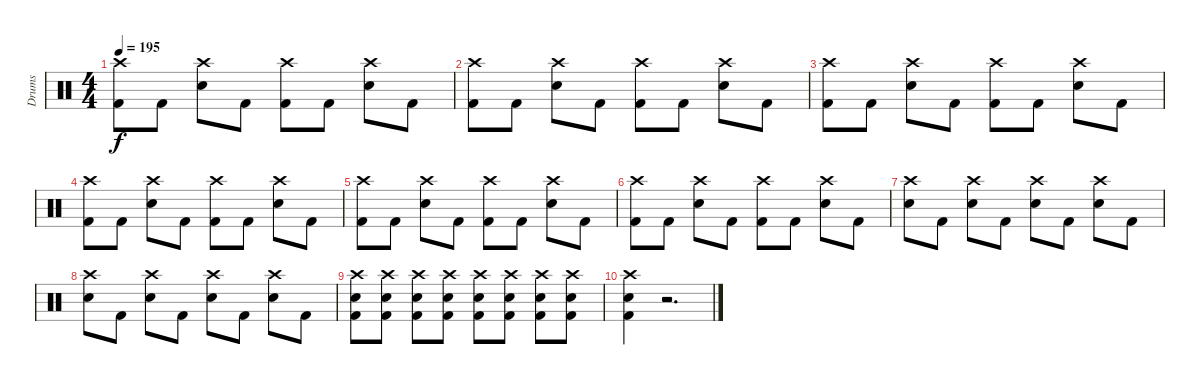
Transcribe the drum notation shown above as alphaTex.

\track ("Drums" "Drums") {instrument percussion}
\staff {score}
\articulation defaults
\ts (4 4)
\tempo 195
\clef neutral
\ks c
("Crash high (hit)" "Kick (hit) 2").8{dy f} "Kick (hit) 2".8 ("Crash high (hit)" "Electric Snare (hit)").8 "Kick (hit) 2".8 ("Crash high (hit)" "Kick (hit) 2").8 "Kick (hit) 2".8 ("Crash high (hit)" "Electric Snare (hit)").8 "Kick (hit) 2".8 |
("Crash high (hit)" "Kick (hit) 2").8 "Kick (hit) 2".8 ("Crash high (hit)" "Electric Snare (hit)").8 "Kick (hit) 2".8 ("Crash high (hit)" "Kick (hit) 2").8 "Kick (hit) 2".8 ("Crash high (hit)" "Electric Snare (hit)").8 "Kick (hit) 2".8 |
("Crash high (hit)" "Kick (hit) 2").8 "Kick (hit) 2".8 ("Crash high (hit)" "Electric Snare (hit)").8 "Kick (hit) 2".8 ("Crash high (hit)" "Kick (hit) 2").8 "Kick (hit) 2".8 ("Crash high (hit)" "Electric Snare (hit)").8 "Kick (hit) 2".8 |
("Crash high (hit)" "Kick (hit) 2").8 "Kick (hit) 2".8 ("Crash high (hit)" "Electric Snare (hit)").8 "Kick (hit) 2".8 ("Crash high (hit)" "Kick (hit) 2").8 "Kick (hit) 2".8 ("Crash high (hit)" "Electric Snare (hit)").8 "Kick (hit) 2".8 |
("Crash high (hit)" "Kick (hit) 2").8 "Kick (hit) 2".8 ("Crash high (hit)" "Electric Snare (hit)").8 "Kick (hit) 2".8 ("Crash high (hit)" "Kick (hit) 2").8 "Kick (hit) 2".8 ("Crash high (hit)" "Electric Snare (hit)").8 "Kick (hit) 2".8 |
("Crash high (hit)" "Kick (hit) 2").8 "Kick (hit) 2".8 ("Crash high (hit)" "Electric Snare (hit)").8 "Kick (hit) 2".8 ("Crash high (hit)" "Kick (hit) 2").8 "Kick (hit) 2".8 ("Crash high (hit)" "Electric Snare (hit)").8 "Kick (hit) 2".8 |
("Crash high (hit)" "Electric Snare (hit)").8 "Kick (hit) 2".8 ("Crash high (hit)" "Electric Snare (hit)").8 "Kick (hit) 2".8 ("Crash high (hit)" "Electric Snare (hit)").8 "Kick (hit) 2".8 ("Crash high (hit)" "Electric Snare (hit)").8 "Kick (hit) 2".8 |
("Crash high (hit)" "Electric Snare (hit)").8 "Kick (hit) 2".8 ("Crash high (hit)" "Electric Snare (hit)").8 "Kick (hit) 2".8 ("Crash high (hit)" "Electric Snare (hit)").8 "Kick (hit) 2".8 ("Crash high (hit)" "Electric Snare (hit)").8 "Kick (hit) 2".8 |
("Crash high (hit)" "Electric Snare (hit)" "Kick (hit) 2").8 ("Crash high (hit)" "Electric Snare (hit)" "Kick (hit) 2").8 ("Crash high (hit)" "Electric Snare (hit)" "Kick (hit) 2").8 ("Crash high (hit)" "Electric Snare (hit)" "Kick (hit) 2").8 ("Crash high (hit)" "Electric Snare (hit)" "Kick (hit) 2").8 ("Crash high (hit)" "Electric Snare (hit)" "Kick (hit) 2").8 ("Crash high (hit)" "Electric Snare (hit)" "Kick (hit) 2").8 ("Crash high (hit)" "Electric Snare (hit)" "Kick (hit) 2").8 |
("Crash high (hit)" "Electric Snare (hit)" "Kick (hit) 2").4 r.2{d}
